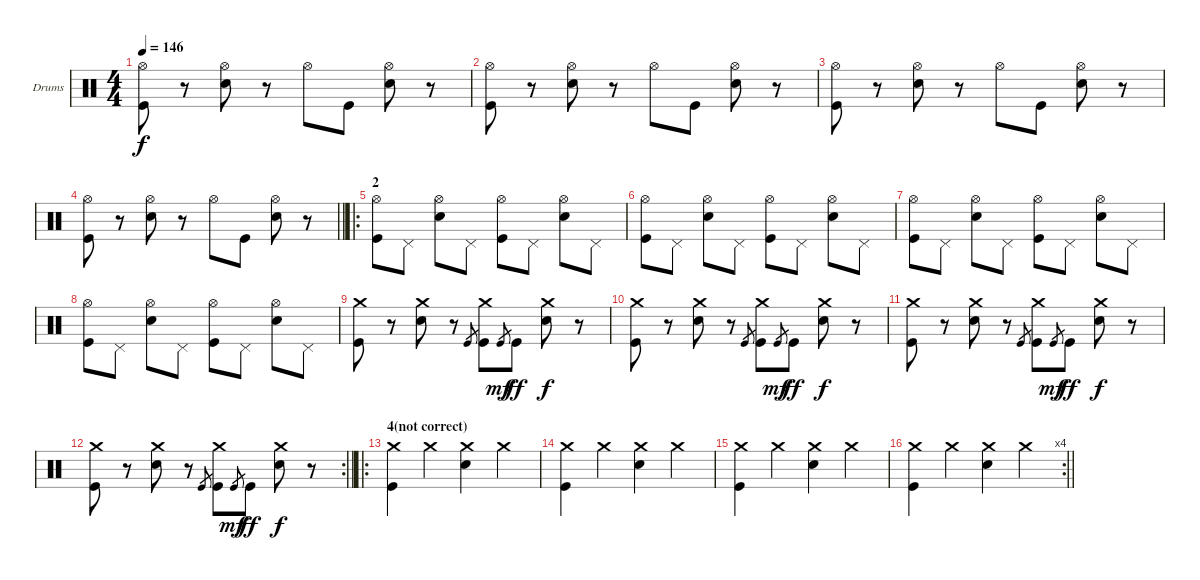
\bracketExtendMode groupsimilarinstruments
\firstSystemTrackNameOrientation horizontal
\otherSystemsTrackNameOrientation horizontal
\track ("Drumkit" "Drums") {instrument percussion}
\staff {score}
\articulation defaults
\ts (4 4)
\tempo 146
\clef neutral
\ks c
("Hi-Hat (open)" "Kick (hit)").8{dy f} r.8 ("Hi-Hat (open)" "Snare (hit) 2").8 r.8 "Hi-Hat (open)".8 "Kick (hit)".8 ("Hi-Hat (open)" "Snare (hit) 2").8 r.8 |
("Hi-Hat (open)" "Kick (hit)").8 r.8 ("Hi-Hat (open)" "Snare (hit) 2").8 r.8 "Hi-Hat (open)".8 "Kick (hit)".8 ("Hi-Hat (open)" "Snare (hit) 2").8 r.8 |
("Hi-Hat (open)" "Kick (hit)").8 r.8 ("Hi-Hat (open)" "Snare (hit) 2").8 r.8 "Hi-Hat (open)".8 "Kick (hit)".8 ("Hi-Hat (open)" "Snare (hit) 2").8 r.8 |
\barLineRight lightlight
("Hi-Hat (open)" "Kick (hit)").8 r.8 ("Hi-Hat (open)" "Snare (hit) 2").8 r.8 "Hi-Hat (open)".8 "Kick (hit)".8 ("Hi-Hat (open)" "Snare (hit) 2").8 r.8 |
\ro
\section ("" "2")
("Hi-Hat (open)" "Kick (hit)").8 "Pedal Hi-Hat (hit)".8 ("Hi-Hat (open)" "Snare (hit) 2").8 "Pedal Hi-Hat (hit)".8 ("Hi-Hat (open)" "Kick (hit)").8 "Pedal Hi-Hat (hit)".8 ("Hi-Hat (open)" "Snare (hit) 2").8 "Pedal Hi-Hat (hit)".8 |
("Hi-Hat (open)" "Kick (hit)").8 "Pedal Hi-Hat (hit)".8 ("Hi-Hat (open)" "Snare (hit) 2").8 "Pedal Hi-Hat (hit)".8 ("Hi-Hat (open)" "Kick (hit)").8 "Pedal Hi-Hat (hit)".8 ("Hi-Hat (open)" "Snare (hit) 2").8 "Pedal Hi-Hat (hit)".8 |
("Hi-Hat (open)" "Kick (hit)").8 "Pedal Hi-Hat (hit)".8 ("Hi-Hat (open)" "Snare (hit) 2").8 "Pedal Hi-Hat (hit)".8 ("Hi-Hat (open)" "Kick (hit)").8 "Pedal Hi-Hat (hit)".8 ("Hi-Hat (open)" "Snare (hit) 2").8 "Pedal Hi-Hat (hit)".8 |
("Hi-Hat (open)" "Kick (hit)").8 "Pedal Hi-Hat (hit)".8 ("Hi-Hat (open)" "Snare (hit) 2").8 "Pedal Hi-Hat (hit)".8 ("Hi-Hat (open)" "Kick (hit)").8 "Pedal Hi-Hat (hit)".8 ("Hi-Hat (open)" "Snare (hit) 2").8 "Pedal Hi-Hat (hit)".8 |
("Crash medium (hit)" "Kick (hit)").8 r.8 ("Crash medium (hit)" "Snare (hit) 2").8 r.8 "Kick (hit)".8{gr} ("Crash medium (hit)" "Kick (hit)").8 "Kick (hit)".8{gr dy mf} "Kick (hit)".8{dy ff} ("Crash medium (hit)" "Snare (hit) 2").8{dy f} r.8 |
("Crash medium (hit)" "Kick (hit)").8 r.8 ("Crash medium (hit)" "Snare (hit) 2").8 r.8 "Kick (hit)".8{gr} ("Crash medium (hit)" "Kick (hit)").8 "Kick (hit)".8{gr dy mf} "Kick (hit)".8{dy ff} ("Crash medium (hit)" "Snare (hit) 2").8{dy f} r.8 |
("Crash medium (hit)" "Kick (hit)").8 r.8 ("Crash medium (hit)" "Snare (hit) 2").8 r.8 "Kick (hit)".8{gr} ("Crash medium (hit)" "Kick (hit)").8 "Kick (hit)".8{gr dy mf} "Kick (hit)".8{dy ff} ("Crash medium (hit)" "Snare (hit) 2").8{dy f} r.8 |
\rc 2
\barLineRight lightlight
("Crash medium (hit)" "Kick (hit)").8 r.8 ("Crash medium (hit)" "Snare (hit) 2").8 r.8 "Kick (hit)".8{gr} ("Crash medium (hit)" "Kick (hit)").8 "Kick (hit)".8{gr dy mf} "Kick (hit)".8{dy ff} ("Crash medium (hit)" "Snare (hit) 2").8{dy f} r.8 |
\ro
\section ("" "4(not correct)")
("Crash medium (hit)" "Kick (hit)").4 "Crash medium (hit)".4 ("Crash medium (hit)" "Snare (hit) 2").4 "Crash medium (hit)".4 |
("Crash medium (hit)" "Kick (hit)").4 "Crash medium (hit)".4 ("Crash medium (hit)" "Snare (hit) 2").4 "Crash medium (hit)".4 |
("Crash medium (hit)" "Kick (hit)").4 "Crash medium (hit)".4 ("Crash medium (hit)" "Snare (hit) 2").4 "Crash medium (hit)".4 |
\rc 4
\barLineRight lightlight
("Crash medium (hit)" "Kick (hit)").4 "Crash medium (hit)".4 ("Crash medium (hit)" "Snare (hit) 2").4 "Crash medium (hit)".4
